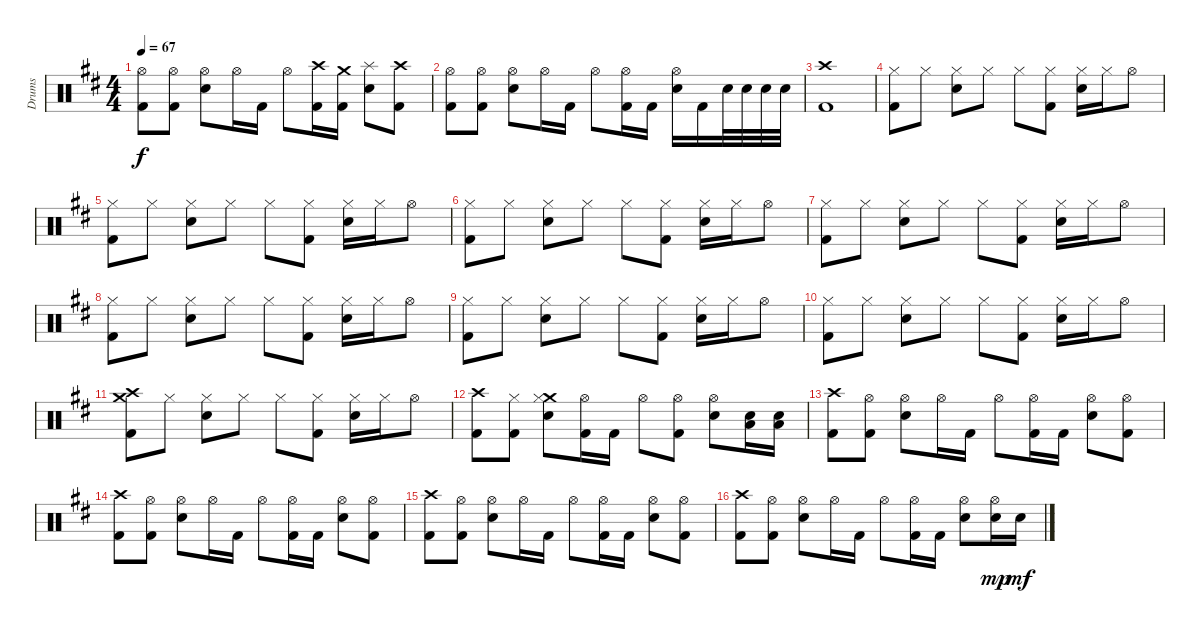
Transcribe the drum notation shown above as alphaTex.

\track ("Drums" "Drums") {instrument percussion}
\staff {score}
\articulation defaults
\ts (4 4)
\tempo 67
\clef neutral
\ks bminor
("Hi-Hat (open)" "Kick (hit) 2").8{dy f} ("Hi-Hat (open)" "Kick (hit) 2").8 ("Hi-Hat (open)" "Electric Snare (hit)").8 "Hi-Hat (open)".16 "Kick (hit) 2".16 "Hi-Hat (open)".8 ("Crash high (hit)" "Kick (hit) 2").16 ("Crash medium (hit)" "Kick (hit) 2").16 ("Splash (hit)" "Electric Snare (hit)").8 ("Crash high (hit)" "Kick (hit) 2").8 |
("Hi-Hat (open)" "Kick (hit) 2").8 ("Hi-Hat (open)" "Kick (hit) 2").8 ("Hi-Hat (open)" "Electric Snare (hit)").8 "Hi-Hat (open)".16 "Kick (hit) 2".16 "Hi-Hat (open)".8 ("Hi-Hat (open)" "Kick (hit) 2").16 "Kick (hit) 2".16 ("Hi-Hat (open)" "Electric Snare (hit)").16 "Kick (hit) 2".16 "Electric Snare (hit)".32 "Electric Snare (hit)".32 "Electric Snare (hit)".32 "Electric Snare (hit)".32 |
("Crash high (hit)" "Kick (hit) 2").1 |
("Hi-Hat (closed)" "Kick (hit) 2").8 "Hi-Hat (closed)".8 ("Hi-Hat (closed)" "Electric Snare (hit)").8 "Hi-Hat (closed)".8 "Hi-Hat (closed)".8 ("Hi-Hat (closed)" "Kick (hit) 2").8 ("Hi-Hat (closed)" "Electric Snare (hit)").16 "Hi-Hat (closed)".16 "Hi-Hat (open)".8 |
("Hi-Hat (closed)" "Kick (hit) 2").8 "Hi-Hat (closed)".8 ("Hi-Hat (closed)" "Electric Snare (hit)").8 "Hi-Hat (closed)".8 "Hi-Hat (closed)".8 ("Hi-Hat (closed)" "Kick (hit) 2").8 ("Hi-Hat (closed)" "Electric Snare (hit)").16 "Hi-Hat (closed)".16 "Hi-Hat (open)".8 |
("Hi-Hat (closed)" "Kick (hit) 2").8 "Hi-Hat (closed)".8 ("Hi-Hat (closed)" "Electric Snare (hit)").8 "Hi-Hat (closed)".8 "Hi-Hat (closed)".8 ("Hi-Hat (closed)" "Kick (hit) 2").8 ("Hi-Hat (closed)" "Electric Snare (hit)").16 "Hi-Hat (closed)".16 "Hi-Hat (open)".8 |
("Hi-Hat (closed)" "Kick (hit) 2").8 "Hi-Hat (closed)".8 ("Hi-Hat (closed)" "Electric Snare (hit)").8 "Hi-Hat (closed)".8 "Hi-Hat (closed)".8 ("Hi-Hat (closed)" "Kick (hit) 2").8 ("Hi-Hat (closed)" "Electric Snare (hit)").16 "Hi-Hat (closed)".16 "Hi-Hat (open)".8 |
("Hi-Hat (closed)" "Kick (hit) 2").8 "Hi-Hat (closed)".8 ("Hi-Hat (closed)" "Electric Snare (hit)").8 "Hi-Hat (closed)".8 "Hi-Hat (closed)".8 ("Hi-Hat (closed)" "Kick (hit) 2").8 ("Hi-Hat (closed)" "Electric Snare (hit)").16 "Hi-Hat (closed)".16 "Hi-Hat (open)".8 |
("Hi-Hat (closed)" "Kick (hit) 2").8 "Hi-Hat (closed)".8 ("Hi-Hat (closed)" "Electric Snare (hit)").8 "Hi-Hat (closed)".8 "Hi-Hat (closed)".8 ("Hi-Hat (closed)" "Kick (hit) 2").8 ("Hi-Hat (closed)" "Electric Snare (hit)").16 "Hi-Hat (closed)".16 "Hi-Hat (open)".8 |
("Hi-Hat (closed)" "Kick (hit) 2").8 "Hi-Hat (closed)".8 ("Hi-Hat (closed)" "Electric Snare (hit)").8 "Hi-Hat (closed)".8 "Hi-Hat (closed)".8 ("Hi-Hat (closed)" "Kick (hit) 2").8 ("Hi-Hat (closed)" "Electric Snare (hit)").16 "Hi-Hat (closed)".16 "Hi-Hat (open)".8 |
("Crash high (hit)" "Crash medium (hit)" "Kick (hit) 2").8 "Hi-Hat (closed)".8 ("Hi-Hat (closed)" "Electric Snare (hit)").8 "Hi-Hat (closed)".8 "Hi-Hat (closed)".8 ("Hi-Hat (closed)" "Kick (hit) 2").8 ("Hi-Hat (closed)" "Electric Snare (hit)").16 "Hi-Hat (closed)".16 "Hi-Hat (open)".8 |
("Crash high (hit)" "Kick (hit) 2").8 ("Hi-Hat (closed)" "Kick (hit) 2").8 ("Crash medium (hit)" "Hi-Hat (closed)" "Electric Snare (hit)").8 ("Hi-Hat (open)" "Kick (hit) 2").16 "Kick (hit) 2".16 "Hi-Hat (open)".8 ("Hi-Hat (open)" "Kick (hit) 2").8 ("Hi-Hat (open)" "Electric Snare (hit)").8 ("Electric Snare (hit)" "Low Floor Tom (hit)").16 ("Electric Snare (hit)" "Low Floor Tom (hit)").16 |
("Crash high (hit)" "Kick (hit) 2").8 ("Hi-Hat (open)" "Kick (hit) 2").8 ("Hi-Hat (open)" "Electric Snare (hit)").8 "Hi-Hat (open)".16 "Kick (hit) 2".16 "Hi-Hat (open)".8 ("Hi-Hat (open)" "Kick (hit) 2").16 "Kick (hit) 2".16 ("Hi-Hat (open)" "Electric Snare (hit)").8 ("Hi-Hat (open)" "Kick (hit) 2").8 |
("Crash high (hit)" "Kick (hit) 2").8 ("Hi-Hat (open)" "Kick (hit) 2").8 ("Hi-Hat (open)" "Electric Snare (hit)").8 "Hi-Hat (open)".16 "Kick (hit) 2".16 "Hi-Hat (open)".8 ("Hi-Hat (open)" "Kick (hit) 2").16 "Kick (hit) 2".16 ("Hi-Hat (open)" "Electric Snare (hit)").8 ("Hi-Hat (open)" "Kick (hit) 2").8 |
("Crash high (hit)" "Kick (hit) 2").8 ("Hi-Hat (open)" "Kick (hit) 2").8 ("Hi-Hat (open)" "Electric Snare (hit)").8 "Hi-Hat (open)".16 "Kick (hit) 2".16 "Hi-Hat (open)".8 ("Hi-Hat (open)" "Kick (hit) 2").16 "Kick (hit) 2".16 ("Hi-Hat (open)" "Electric Snare (hit)").8 ("Hi-Hat (open)" "Kick (hit) 2").8 |
("Crash high (hit)" "Kick (hit) 2").8 ("Hi-Hat (open)" "Kick (hit) 2").8 ("Hi-Hat (open)" "Electric Snare (hit)").8 "Hi-Hat (open)".16 "Kick (hit) 2".16 "Hi-Hat (open)".8 ("Hi-Hat (open)" "Kick (hit) 2").16 "Kick (hit) 2".16 ("Hi-Hat (open)" "Electric Snare (hit)").8 ("Hi-Hat (open)" "Electric Snare (hit)").16{dy mp} "Electric Snare (hit)".16{dy mf}
